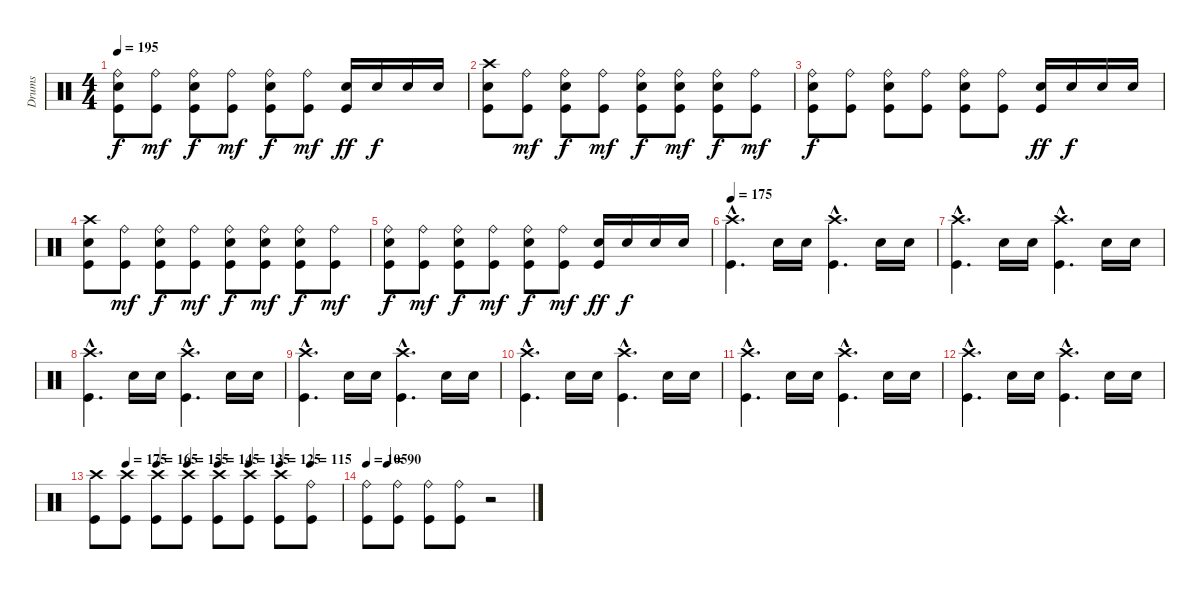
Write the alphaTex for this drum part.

\track ("Drums" "Drums") {instrument percussion}
\staff {score}
\articulation defaults
\ts (4 4)
\tempo 195
\clef neutral
\ks c
("Ride (bell)" "Electric Snare (hit)" "Kick (hit)").8{dy f} ("Ride (bell)" "Kick (hit)").8{dy mf} ("Ride (bell)" "Electric Snare (hit)" "Kick (hit)").8{dy f} ("Ride (bell)" "Kick (hit)").8{dy mf} ("Ride (bell)" "Electric Snare (hit)" "Kick (hit)").8{dy f} ("Ride (bell)" "Kick (hit)").8{dy mf} ("Electric Snare (hit)" "Kick (hit)").16{dy ff} "Electric Snare (hit)".16{dy f} "Electric Snare (hit)".16 "Electric Snare (hit)".16 |
("Crash high (hit)" "Electric Snare (hit)" "Kick (hit)").8 ("Ride (bell)" "Kick (hit)").8{dy mf} ("Ride (bell)" "Electric Snare (hit)" "Kick (hit)").8{dy f} ("Ride (bell)" "Kick (hit)").8{dy mf} ("Ride (bell)" "Electric Snare (hit)" "Kick (hit)").8{dy f} ("Ride (bell)" "Electric Snare (hit)" "Kick (hit)").8{dy mf} ("Ride (bell)" "Electric Snare (hit)" "Kick (hit)").8{dy f} ("Ride (bell)" "Kick (hit)").8{dy mf} |
("Ride (bell)" "Electric Snare (hit)" "Kick (hit)").8{dy f} ("Ride (bell)" "Kick (hit)").8 ("Ride (bell)" "Electric Snare (hit)" "Kick (hit)").8 ("Ride (bell)" "Kick (hit)").8 ("Ride (bell)" "Electric Snare (hit)" "Kick (hit)").8 ("Ride (bell)" "Kick (hit)").8 ("Electric Snare (hit)" "Kick (hit)").16{dy ff} "Electric Snare (hit)".16{dy f} "Electric Snare (hit)".16 "Electric Snare (hit)".16 |
("Crash high (hit)" "Electric Snare (hit)" "Kick (hit)").8 ("Ride (bell)" "Kick (hit)").8{dy mf} ("Ride (bell)" "Electric Snare (hit)" "Kick (hit)").8{dy f} ("Ride (bell)" "Kick (hit)").8{dy mf} ("Ride (bell)" "Electric Snare (hit)" "Kick (hit)").8{dy f} ("Ride (bell)" "Electric Snare (hit)" "Kick (hit)").8{dy mf} ("Ride (bell)" "Electric Snare (hit)" "Kick (hit)").8{dy f} ("Ride (bell)" "Kick (hit)").8{dy mf} |
("Ride (bell)" "Electric Snare (hit)" "Kick (hit)").8{dy f} ("Ride (bell)" "Kick (hit)").8{dy mf} ("Ride (bell)" "Electric Snare (hit)" "Kick (hit)").8{dy f} ("Ride (bell)" "Kick (hit)").8{dy mf} ("Ride (bell)" "Electric Snare (hit)" "Kick (hit)").8{dy f} ("Ride (bell)" "Kick (hit)").8{dy mf} ("Electric Snare (hit)" "Kick (hit)").16{dy ff} "Electric Snare (hit)".16{dy f} "Electric Snare (hit)".16 "Electric Snare (hit)".16 |
\tempo 175
("Crash high (hit)"{hac} "Kick (hit)"{hac}).4{d} "Electric Snare (hit)".16 "Electric Snare (hit)".16 ("Crash high (hit)"{hac} "Kick (hit)"{hac}).4{d} "Electric Snare (hit)".16 "Electric Snare (hit)".16 |
("Crash high (hit)"{hac} "Kick (hit)"{hac}).4{d} "Electric Snare (hit)".16 "Electric Snare (hit)".16 ("Crash high (hit)"{hac} "Kick (hit)"{hac}).4{d} "Electric Snare (hit)".16 "Electric Snare (hit)".16 |
("Crash high (hit)"{hac} "Kick (hit)"{hac}).4{d} "Electric Snare (hit)".16 "Electric Snare (hit)".16 ("Crash high (hit)"{hac} "Kick (hit)"{hac}).4{d} "Electric Snare (hit)".16 "Electric Snare (hit)".16 |
("Crash high (hit)"{hac} "Kick (hit)"{hac}).4{d} "Electric Snare (hit)".16 "Electric Snare (hit)".16 ("Crash high (hit)"{hac} "Kick (hit)"{hac}).4{d} "Electric Snare (hit)".16 "Electric Snare (hit)".16 |
("Crash high (hit)"{hac} "Kick (hit)"{hac}).4{d} "Electric Snare (hit)".16 "Electric Snare (hit)".16 ("Crash high (hit)"{hac} "Kick (hit)"{hac}).4{d} "Electric Snare (hit)".16 "Electric Snare (hit)".16 |
("Crash high (hit)"{hac} "Kick (hit)"{hac}).4{d} "Electric Snare (hit)".16 "Electric Snare (hit)".16 ("Crash high (hit)"{hac} "Kick (hit)"{hac}).4{d} "Electric Snare (hit)".16 "Electric Snare (hit)".16 |
("Crash high (hit)"{hac} "Kick (hit)"{hac}).4{d} "Electric Snare (hit)".16 "Electric Snare (hit)".16 ("Crash high (hit)"{hac} "Kick (hit)"{hac}).4{d} "Electric Snare (hit)".16 "Electric Snare (hit)".16 |
\tempo (175 0.125)
\tempo (165 0.25)
\tempo (155 0.375)
\tempo (145 0.5)
\tempo (135 0.625)
\tempo (125 0.75)
\tempo (115 0.875)
("Crash high (hit)" "Kick (hit)").8 ("Crash high (hit)" "Kick (hit)").8 ("Crash high (hit)" "Kick (hit)").8 ("Crash high (hit)" "Kick (hit)").8 ("Crash high (hit)" "Kick (hit)").8 ("Crash high (hit)" "Kick (hit)").8 ("Crash high (hit)" "Kick (hit)").8 ("Ride (bell)" "Kick (hit)").8 |
\tempo 105
\tempo (90 0.125)
("Ride (bell)" "Kick (hit)").8 ("Ride (bell)" "Kick (hit)").8 ("Ride (bell)" "Kick (hit)").8 ("Ride (bell)" "Kick (hit)").8 r.2
